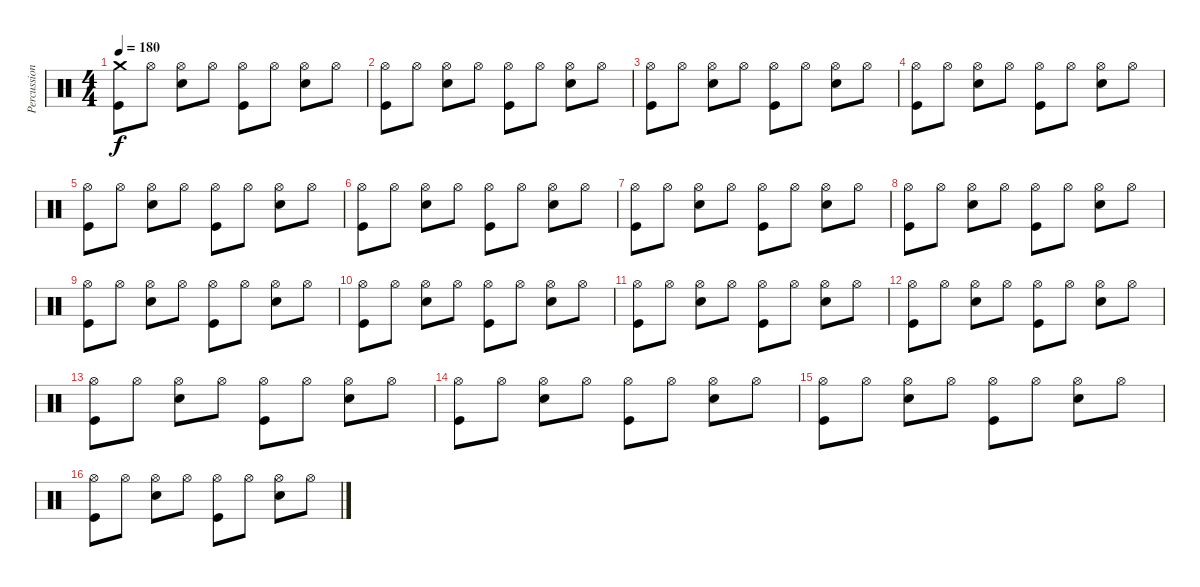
\track ("Percussion" "Percussion") {instrument percussion}
\staff {score}
\articulation defaults
\ts (4 4)
\tempo 180
\clef neutral
\ks c
("Crash medium (hit)" "Kick (hit)").8{dy f} "Hi-Hat (open)".8 ("Hi-Hat (open)" "Snare (hit) 2").8 "Hi-Hat (open)".8 ("Hi-Hat (open)" "Kick (hit)").8 "Hi-Hat (open)".8 ("Hi-Hat (open)" "Snare (hit) 2").8 "Hi-Hat (open)".8 |
("Hi-Hat (open)" "Kick (hit)").8 "Hi-Hat (open)".8 ("Hi-Hat (open)" "Snare (hit) 2").8 "Hi-Hat (open)".8 ("Hi-Hat (open)" "Kick (hit)").8 "Hi-Hat (open)".8 ("Hi-Hat (open)" "Snare (hit) 2").8 "Hi-Hat (open)".8 |
("Hi-Hat (open)" "Kick (hit)").8 "Hi-Hat (open)".8 ("Hi-Hat (open)" "Snare (hit) 2").8 "Hi-Hat (open)".8 ("Hi-Hat (open)" "Kick (hit)").8 "Hi-Hat (open)".8 ("Hi-Hat (open)" "Snare (hit) 2").8 "Hi-Hat (open)".8 |
("Hi-Hat (open)" "Kick (hit)").8 "Hi-Hat (open)".8 ("Hi-Hat (open)" "Snare (hit) 2").8 "Hi-Hat (open)".8 ("Hi-Hat (open)" "Kick (hit)").8 "Hi-Hat (open)".8 ("Hi-Hat (open)" "Snare (hit) 2").8 "Hi-Hat (open)".8 |
("Hi-Hat (open)" "Kick (hit)").8 "Hi-Hat (open)".8 ("Hi-Hat (open)" "Snare (hit) 2").8 "Hi-Hat (open)".8 ("Hi-Hat (open)" "Kick (hit)").8 "Hi-Hat (open)".8 ("Hi-Hat (open)" "Snare (hit) 2").8 "Hi-Hat (open)".8 |
("Hi-Hat (open)" "Kick (hit)").8 "Hi-Hat (open)".8 ("Hi-Hat (open)" "Snare (hit) 2").8 "Hi-Hat (open)".8 ("Hi-Hat (open)" "Kick (hit)").8 "Hi-Hat (open)".8 ("Hi-Hat (open)" "Snare (hit) 2").8 "Hi-Hat (open)".8 |
("Hi-Hat (open)" "Kick (hit)").8 "Hi-Hat (open)".8 ("Hi-Hat (open)" "Snare (hit) 2").8 "Hi-Hat (open)".8 ("Hi-Hat (open)" "Kick (hit)").8 "Hi-Hat (open)".8 ("Hi-Hat (open)" "Snare (hit) 2").8 "Hi-Hat (open)".8 |
("Hi-Hat (open)" "Kick (hit)").8 "Hi-Hat (open)".8 ("Hi-Hat (open)" "Snare (hit) 2").8 "Hi-Hat (open)".8 ("Hi-Hat (open)" "Kick (hit)").8 "Hi-Hat (open)".8 ("Hi-Hat (open)" "Snare (hit) 2").8 "Hi-Hat (open)".8 |
("Hi-Hat (open)" "Kick (hit)").8 "Hi-Hat (open)".8 ("Hi-Hat (open)" "Snare (hit) 2").8 "Hi-Hat (open)".8 ("Hi-Hat (open)" "Kick (hit)").8 "Hi-Hat (open)".8 ("Hi-Hat (open)" "Snare (hit) 2").8 "Hi-Hat (open)".8 |
("Hi-Hat (open)" "Kick (hit)").8 "Hi-Hat (open)".8 ("Hi-Hat (open)" "Snare (hit) 2").8 "Hi-Hat (open)".8 ("Hi-Hat (open)" "Kick (hit)").8 "Hi-Hat (open)".8 ("Hi-Hat (open)" "Snare (hit) 2").8 "Hi-Hat (open)".8 |
("Hi-Hat (open)" "Kick (hit)").8 "Hi-Hat (open)".8 ("Hi-Hat (open)" "Snare (hit) 2").8 "Hi-Hat (open)".8 ("Hi-Hat (open)" "Kick (hit)").8 "Hi-Hat (open)".8 ("Hi-Hat (open)" "Snare (hit) 2").8 "Hi-Hat (open)".8 |
("Hi-Hat (open)" "Kick (hit)").8 "Hi-Hat (open)".8 ("Hi-Hat (open)" "Snare (hit) 2").8 "Hi-Hat (open)".8 ("Hi-Hat (open)" "Kick (hit)").8 "Hi-Hat (open)".8 ("Hi-Hat (open)" "Snare (hit) 2").8 "Hi-Hat (open)".8 |
("Hi-Hat (open)" "Kick (hit)").8 "Hi-Hat (open)".8 ("Hi-Hat (open)" "Snare (hit) 2").8 "Hi-Hat (open)".8 ("Hi-Hat (open)" "Kick (hit)").8 "Hi-Hat (open)".8 ("Hi-Hat (open)" "Snare (hit) 2").8 "Hi-Hat (open)".8 |
("Hi-Hat (open)" "Kick (hit)").8 "Hi-Hat (open)".8 ("Hi-Hat (open)" "Snare (hit) 2").8 "Hi-Hat (open)".8 ("Hi-Hat (open)" "Kick (hit)").8 "Hi-Hat (open)".8 ("Hi-Hat (open)" "Snare (hit) 2").8 "Hi-Hat (open)".8 |
("Hi-Hat (open)" "Kick (hit)").8 "Hi-Hat (open)".8 ("Hi-Hat (open)" "Snare (hit) 2").8 "Hi-Hat (open)".8 ("Hi-Hat (open)" "Kick (hit)").8 "Hi-Hat (open)".8 ("Hi-Hat (open)" "Snare (hit) 2").8 "Hi-Hat (open)".8 |
("Hi-Hat (open)" "Kick (hit)").8 "Hi-Hat (open)".8 ("Hi-Hat (open)" "Snare (hit) 2").8 "Hi-Hat (open)".8 ("Hi-Hat (open)" "Kick (hit)").8 "Hi-Hat (open)".8 ("Hi-Hat (open)" "Snare (hit) 2").8 "Hi-Hat (open)".8
